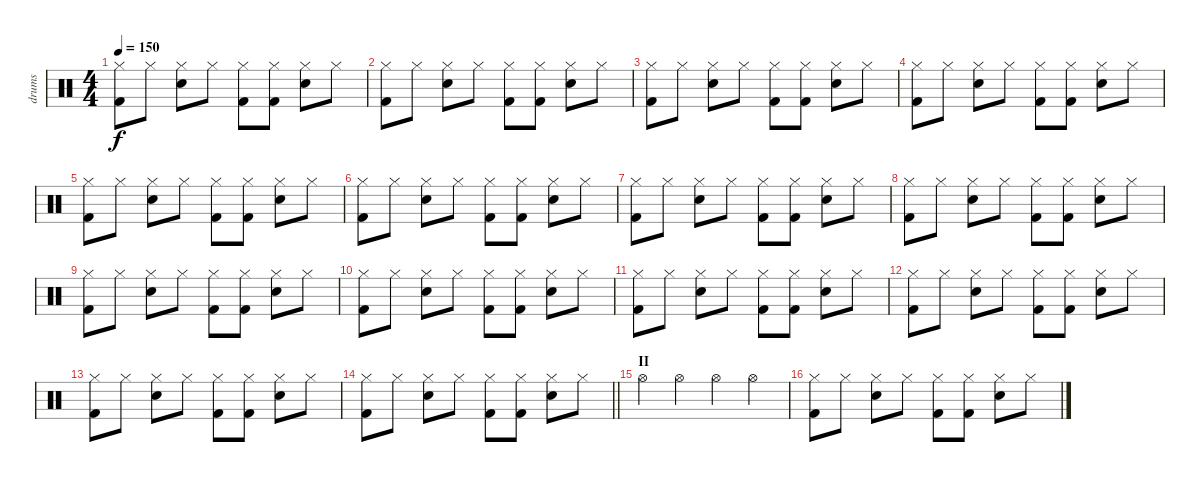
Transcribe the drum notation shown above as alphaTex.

\track ("drums" "drums") {instrument percussion}
\staff {score}
\articulation defaults
\ts (4 4)
\tempo 150
\clef neutral
\ks c
("Kick (hit) 2" "Hi-Hat (closed)").8{dy f} "Hi-Hat (closed)".8 ("Snare (hit) 2" "Hi-Hat (closed)").8 "Hi-Hat (closed)".8 ("Kick (hit) 2" "Hi-Hat (closed)").8 ("Kick (hit) 2" "Hi-Hat (closed)").8 ("Snare (hit) 2" "Hi-Hat (closed)").8 "Hi-Hat (closed)".8 |
("Kick (hit) 2" "Hi-Hat (closed)").8 "Hi-Hat (closed)".8 ("Snare (hit) 2" "Hi-Hat (closed)").8 "Hi-Hat (closed)".8 ("Kick (hit) 2" "Hi-Hat (closed)").8 ("Kick (hit) 2" "Hi-Hat (closed)").8 ("Snare (hit) 2" "Hi-Hat (closed)").8 "Hi-Hat (closed)".8 |
("Kick (hit) 2" "Hi-Hat (closed)").8 "Hi-Hat (closed)".8 ("Snare (hit) 2" "Hi-Hat (closed)").8 "Hi-Hat (closed)".8 ("Kick (hit) 2" "Hi-Hat (closed)").8 ("Kick (hit) 2" "Hi-Hat (closed)").8 ("Snare (hit) 2" "Hi-Hat (closed)").8 "Hi-Hat (closed)".8 |
("Kick (hit) 2" "Hi-Hat (closed)").8 "Hi-Hat (closed)".8 ("Snare (hit) 2" "Hi-Hat (closed)").8 "Hi-Hat (closed)".8 ("Kick (hit) 2" "Hi-Hat (closed)").8 ("Kick (hit) 2" "Hi-Hat (closed)").8 ("Snare (hit) 2" "Hi-Hat (closed)").8 "Hi-Hat (closed)".8 |
("Kick (hit) 2" "Hi-Hat (closed)").8 "Hi-Hat (closed)".8 ("Snare (hit) 2" "Hi-Hat (closed)").8 "Hi-Hat (closed)".8 ("Kick (hit) 2" "Hi-Hat (closed)").8 ("Kick (hit) 2" "Hi-Hat (closed)").8 ("Snare (hit) 2" "Hi-Hat (closed)").8 "Hi-Hat (closed)".8 |
("Kick (hit) 2" "Hi-Hat (closed)").8 "Hi-Hat (closed)".8 ("Snare (hit) 2" "Hi-Hat (closed)").8 "Hi-Hat (closed)".8 ("Kick (hit) 2" "Hi-Hat (closed)").8 ("Kick (hit) 2" "Hi-Hat (closed)").8 ("Snare (hit) 2" "Hi-Hat (closed)").8 "Hi-Hat (closed)".8 |
("Kick (hit) 2" "Hi-Hat (closed)").8 "Hi-Hat (closed)".8 ("Snare (hit) 2" "Hi-Hat (closed)").8 "Hi-Hat (closed)".8 ("Kick (hit) 2" "Hi-Hat (closed)").8 ("Kick (hit) 2" "Hi-Hat (closed)").8 ("Snare (hit) 2" "Hi-Hat (closed)").8 "Hi-Hat (closed)".8 |
("Kick (hit) 2" "Hi-Hat (closed)").8 "Hi-Hat (closed)".8 ("Snare (hit) 2" "Hi-Hat (closed)").8 "Hi-Hat (closed)".8 ("Kick (hit) 2" "Hi-Hat (closed)").8 ("Kick (hit) 2" "Hi-Hat (closed)").8 ("Snare (hit) 2" "Hi-Hat (closed)").8 "Hi-Hat (closed)".8 |
("Kick (hit) 2" "Hi-Hat (closed)").8 "Hi-Hat (closed)".8 ("Snare (hit) 2" "Hi-Hat (closed)").8 "Hi-Hat (closed)".8 ("Kick (hit) 2" "Hi-Hat (closed)").8 ("Kick (hit) 2" "Hi-Hat (closed)").8 ("Snare (hit) 2" "Hi-Hat (closed)").8 "Hi-Hat (closed)".8 |
("Kick (hit) 2" "Hi-Hat (closed)").8 "Hi-Hat (closed)".8 ("Snare (hit) 2" "Hi-Hat (closed)").8 "Hi-Hat (closed)".8 ("Kick (hit) 2" "Hi-Hat (closed)").8 ("Kick (hit) 2" "Hi-Hat (closed)").8 ("Snare (hit) 2" "Hi-Hat (closed)").8 "Hi-Hat (closed)".8 |
("Kick (hit) 2" "Hi-Hat (closed)").8 "Hi-Hat (closed)".8 ("Snare (hit) 2" "Hi-Hat (closed)").8 "Hi-Hat (closed)".8 ("Kick (hit) 2" "Hi-Hat (closed)").8 ("Kick (hit) 2" "Hi-Hat (closed)").8 ("Snare (hit) 2" "Hi-Hat (closed)").8 "Hi-Hat (closed)".8 |
("Kick (hit) 2" "Hi-Hat (closed)").8 "Hi-Hat (closed)".8 ("Snare (hit) 2" "Hi-Hat (closed)").8 "Hi-Hat (closed)".8 ("Kick (hit) 2" "Hi-Hat (closed)").8 ("Kick (hit) 2" "Hi-Hat (closed)").8 ("Snare (hit) 2" "Hi-Hat (closed)").8 "Hi-Hat (closed)".8 |
("Kick (hit) 2" "Hi-Hat (closed)").8 "Hi-Hat (closed)".8 ("Snare (hit) 2" "Hi-Hat (closed)").8 "Hi-Hat (closed)".8 ("Kick (hit) 2" "Hi-Hat (closed)").8 ("Kick (hit) 2" "Hi-Hat (closed)").8 ("Snare (hit) 2" "Hi-Hat (closed)").8 "Hi-Hat (closed)".8 |
\barLineRight lightlight
("Kick (hit) 2" "Hi-Hat (closed)").8 "Hi-Hat (closed)".8 ("Snare (hit) 2" "Hi-Hat (closed)").8 "Hi-Hat (closed)".8 ("Kick (hit) 2" "Hi-Hat (closed)").8 ("Kick (hit) 2" "Hi-Hat (closed)").8 ("Snare (hit) 2" "Hi-Hat (closed)").8 "Hi-Hat (closed)".8 |
\section ("" "II")
"Hi-Hat (open)".4 "Hi-Hat (open)".4 "Hi-Hat (open)".4 "Hi-Hat (open)".4 |
("Kick (hit) 2" "Hi-Hat (closed)").8 "Hi-Hat (closed)".8 ("Snare (hit) 2" "Hi-Hat (closed)").8 "Hi-Hat (closed)".8 ("Kick (hit) 2" "Hi-Hat (closed)").8 ("Kick (hit) 2" "Hi-Hat (closed)").8 ("Snare (hit) 2" "Hi-Hat (closed)").8 "Hi-Hat (closed)".8
